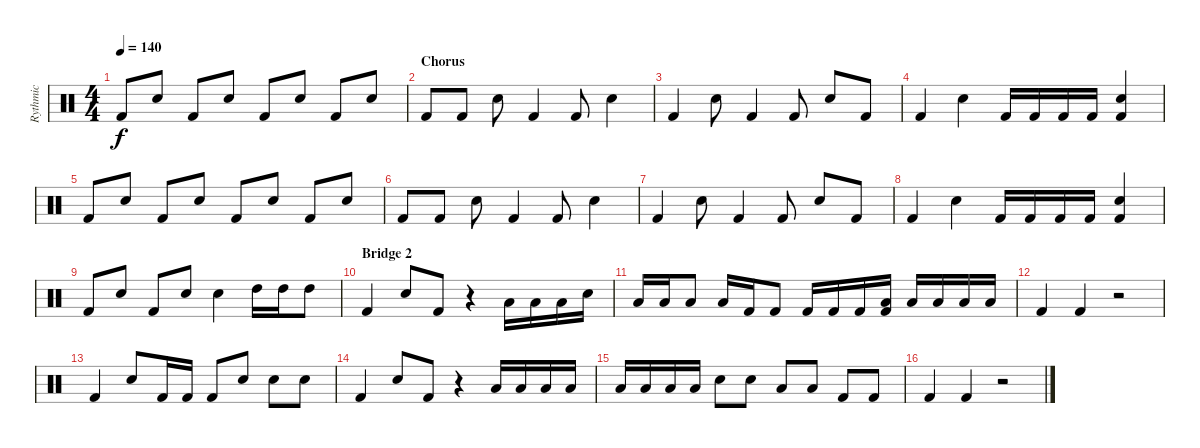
\track ("Rythmic" "Rythmic") {instrument percussion}
\staff {score}
\articulation defaults
\ts (4 4)
\tempo 140
\clef neutral
\ks c "Kick (hit) 2".8{dy f} "Snare (hit) 2".8 "Kick (hit) 2".8 "Snare (hit) 2".8 "Kick (hit) 2".8 "Snare (hit) 2".8 "Kick (hit) 2".8 "Snare (hit) 2".8
|
\section ("" "Chorus")
"Kick (hit) 2".8 "Kick (hit) 2".8 "Snare (hit) 2".8 "Kick (hit) 2".4 "Kick (hit) 2".8 "Snare (hit) 2".4 |
"Kick (hit) 2".4 "Snare (hit) 2".8 "Kick (hit) 2".4 "Kick (hit) 2".8 "Snare (hit) 2".8 "Kick (hit) 2".8 |
"Kick (hit) 2".4 "Snare (hit) 2".4 "Kick (hit) 2".16 "Kick (hit) 2".16 "Kick (hit) 2".16 "Kick (hit) 2".16 ("Snare (hit) 2" "Kick (hit) 2").4 |
"Kick (hit) 2".8 "Snare (hit) 2".8 "Kick (hit) 2".8 "Snare (hit) 2".8 "Kick (hit) 2".8 "Snare (hit) 2".8 "Kick (hit) 2".8 "Snare (hit) 2".8 |
"Kick (hit) 2".8 "Kick (hit) 2".8 "Snare (hit) 2".8 "Kick (hit) 2".4 "Kick (hit) 2".8 "Snare (hit) 2".4 |
"Kick (hit) 2".4 "Snare (hit) 2".8 "Kick (hit) 2".4 "Kick (hit) 2".8 "Snare (hit) 2".8 "Kick (hit) 2".8 |
"Kick (hit) 2".4 "Snare (hit) 2".4 "Kick (hit) 2".16 "Kick (hit) 2".16 "Kick (hit) 2".16 "Kick (hit) 2".16 ("Snare (hit) 2" "Kick (hit) 2").4 |
"Kick (hit) 2".8 "Snare (hit) 2".8 "Kick (hit) 2".8 "Snare (hit) 2".8 "Snare (hit) 2".4 "High Tom (hit)".16 "High Tom (hit)".16 "High Tom (hit)".8 |
\section ("" "Bridge 2")
"Kick (hit) 2".4 "Snare (hit) 2".8 "Kick (hit) 2".8 r.4 "Low Floor Tom (hit)".16 "Low Floor Tom (hit)".16 "Low Floor Tom (hit)".16 "Snare (hit) 2".16 |
"Low Floor Tom (hit)".16 "Low Floor Tom (hit)".16 "Low Floor Tom (hit)".8 "Low Floor Tom (hit)".16 "Kick (hit) 2".16 "Kick (hit) 2".8 "Kick (hit) 2".16 "Kick (hit) 2".16 "Kick (hit) 2".16 ("Low Tom (hit)" "Kick (hit) 2").16 "Low Tom (hit)".16 "Low Tom (hit)".16 "Low Floor Tom (hit)".16 "Low Floor Tom (hit)".16 |
"Kick (hit) 2".4 "Kick (hit) 2".4 r.2 |
"Kick (hit) 2".4 "Snare (hit) 2".8 "Kick (hit) 2".16 "Kick (hit) 2".16 "Kick (hit) 2".8 "Snare (hit) 2".8 "Snare (hit) 2".8 "Snare (hit) 2".8 |
"Kick (hit) 2".4 "Snare (hit) 2".8 "Kick (hit) 2".8 r.4 "Low Floor Tom (hit)".16 "Low Floor Tom (hit)".16 "Low Floor Tom (hit)".16 "Low Floor Tom (hit)".16 |
"Low Tom (hit)".16 "Low Tom (hit)".16 "Low Tom (hit)".16 "Low Tom (hit)".16 "Snare (hit) 2".8 "Snare (hit) 2".8 "Low Floor Tom (hit)".8 "Low Floor Tom (hit)".8 "Kick (hit) 2".8 "Kick (hit) 2".8 |
"Kick (hit) 2".4 "Kick (hit) 2".4 r.2
